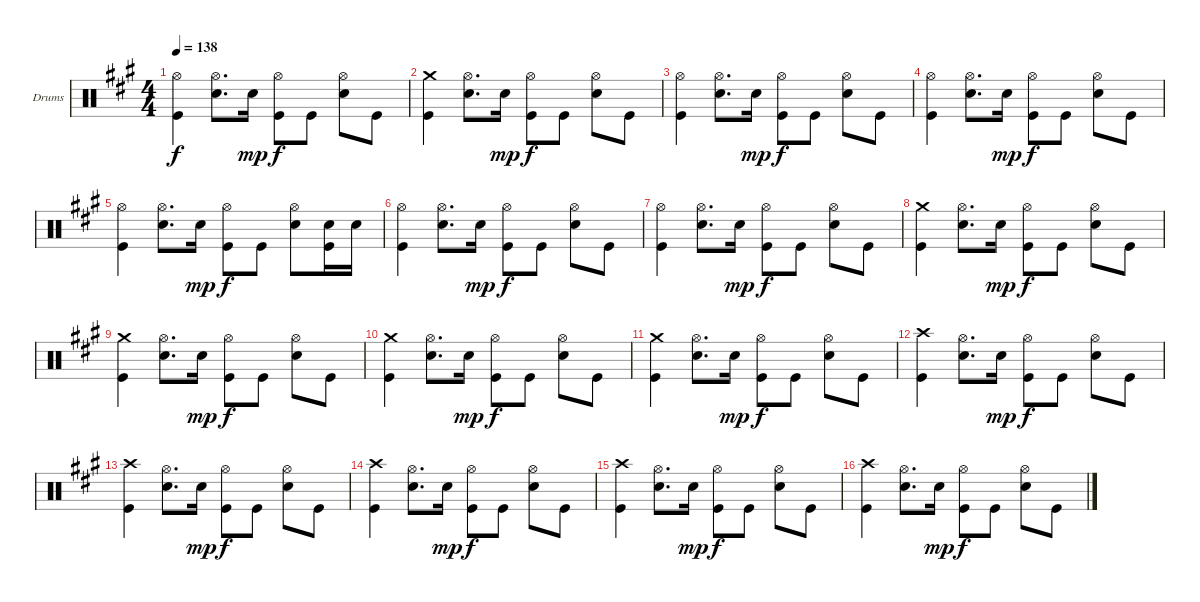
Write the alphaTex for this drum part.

\defaultSystemsLayout 4
\bracketExtendMode groupsimilarinstruments
\firstSystemTrackNameOrientation horizontal
\otherSystemsTrackNameOrientation horizontal
\track ("Drumkit" "Drums") {instrument percussion}
\staff {score}
\articulation defaults
\ts (4 4)
\tempo 138
\clef neutral
\scale
0.941992
\ks a
("Hi-Hat (open)" "Kick (hit)").4{dy f} ("Hi-Hat (open)" "Snare (hit) 2").8{d} "Snare (hit) 2".16{dy mp} ("Hi-Hat (open)" "Kick (hit)").8{dy f} "Kick (hit)".8 ("Hi-Hat (open)" "Snare (hit) 2").8 "Kick (hit)".8 |
\scale
1.05801 ("Crash medium (hit)" "Kick (hit)").4 ("Hi-Hat (open)" "Snare (hit) 2").8{d} "Snare (hit) 2".16{dy mp} ("Hi-Hat (open)" "Kick (hit)").8{dy f} "Kick (hit)".8 ("Hi-Hat (open)" "Snare (hit) 2").8 "Kick (hit)".8 |
\scale
0.941992 ("Hi-Hat (open)" "Kick (hit)").4 ("Hi-Hat (open)" "Snare (hit) 2").8{d} "Snare (hit) 2".16{dy mp} ("Hi-Hat (open)" "Kick (hit)").8{dy f} "Kick (hit)".8 ("Hi-Hat (open)" "Snare (hit) 2").8 "Kick (hit)".8 |
\scale
1.05801 ("Hi-Hat (open)" "Kick (hit)").4 ("Hi-Hat (open)" "Snare (hit) 2").8{d} "Snare (hit) 2".16{dy mp} ("Hi-Hat (open)" "Kick (hit)").8{dy f} "Kick (hit)".8 ("Hi-Hat (open)" "Snare (hit) 2").8 "Kick (hit)".8 |
\scale
0.941992 ("Hi-Hat (open)" "Kick (hit)").4 ("Hi-Hat (open)" "Snare (hit) 2").8{d} "Snare (hit) 2".16{dy mp} ("Hi-Hat (open)" "Kick (hit)").8{dy f} "Kick (hit)".8 ("Hi-Hat (open)" "Snare (hit) 2").8 ("Snare (hit) 2" "Kick (hit)").16 "Snare (hit) 2".16 |
\scale
1.05801 ("Hi-Hat (open)" "Kick (hit)").4 ("Hi-Hat (open)" "Snare (hit) 2").8{d} "Snare (hit) 2".16{dy mp} ("Hi-Hat (open)" "Kick (hit)").8{dy f} "Kick (hit)".8 ("Hi-Hat (open)" "Snare (hit) 2").8 "Kick (hit)".8 |
\scale
0.941992 ("Hi-Hat (open)" "Kick (hit)").4 ("Hi-Hat (open)" "Snare (hit) 2").8{d} "Snare (hit) 2".16{dy mp} ("Hi-Hat (open)" "Kick (hit)").8{dy f} "Kick (hit)".8 ("Hi-Hat (open)" "Snare (hit) 2").8 "Kick (hit)".8 |
\scale
1.05801 ("Crash medium (hit)" "Kick (hit)").4 ("Hi-Hat (open)" "Snare (hit) 2").8{d} "Snare (hit) 2".16{dy mp} ("Hi-Hat (open)" "Kick (hit)").8{dy f} "Kick (hit)".8 ("Hi-Hat (open)" "Snare (hit) 2").8 "Kick (hit)".8 |
\scale
0.941992 ("Crash medium (hit)" "Kick (hit)").4 ("Hi-Hat (open)" "Snare (hit) 2").8{d} "Snare (hit) 2".16{dy mp} ("Hi-Hat (open)" "Kick (hit)").8{dy f} "Kick (hit)".8 ("Hi-Hat (open)" "Snare (hit) 2").8 "Kick (hit)".8 |
\scale
1.05801 ("Crash medium (hit)" "Kick (hit)").4 ("Hi-Hat (open)" "Snare (hit) 2").8{d} "Snare (hit) 2".16{dy mp} ("Hi-Hat (open)" "Kick (hit)").8{dy f} "Kick (hit)".8 ("Hi-Hat (open)" "Snare (hit) 2").8 "Kick (hit)".8 |
\scale
0.941992 ("Crash medium (hit)" "Kick (hit)").4 ("Hi-Hat (open)" "Snare (hit) 2").8{d} "Snare (hit) 2".16{dy mp} ("Hi-Hat (open)" "Kick (hit)").8{dy f} "Kick (hit)".8 ("Hi-Hat (open)" "Snare (hit) 2").8 "Kick (hit)".8 |
\scale
1.05801 ("Crash high (hit)" "Kick (hit)").4 ("Hi-Hat (open)" "Snare (hit) 2").8{d} "Snare (hit) 2".16{dy mp} ("Hi-Hat (open)" "Kick (hit)").8{dy f} "Kick (hit)".8 ("Hi-Hat (open)" "Snare (hit) 2").8 "Kick (hit)".8 |
\scale
0.941992 ("Crash high (hit)" "Kick (hit)").4 ("Hi-Hat (open)" "Snare (hit) 2").8{d} "Snare (hit) 2".16{dy mp} ("Hi-Hat (open)" "Kick (hit)").8{dy f} "Kick (hit)".8 ("Hi-Hat (open)" "Snare (hit) 2").8 "Kick (hit)".8 |
\scale
1.05801 ("Crash high (hit)" "Kick (hit)").4 ("Hi-Hat (open)" "Snare (hit) 2").8{d} "Snare (hit) 2".16{dy mp} ("Hi-Hat (open)" "Kick (hit)").8{dy f} "Kick (hit)".8 ("Hi-Hat (open)" "Snare (hit) 2").8 "Kick (hit)".8 |
\scale
0.941992 ("Crash high (hit)" "Kick (hit)").4 ("Hi-Hat (open)" "Snare (hit) 2").8{d} "Snare (hit) 2".16{dy mp} ("Hi-Hat (open)" "Kick (hit)").8{dy f} "Kick (hit)".8 ("Hi-Hat (open)" "Snare (hit) 2").8 "Kick (hit)".8 |
\scale
1.05801 ("Crash high (hit)" "Kick (hit)").4 ("Hi-Hat (open)" "Snare (hit) 2").8{d} "Snare (hit) 2".16{dy mp} ("Hi-Hat (open)" "Kick (hit)").8{dy f} "Kick (hit)".8 ("Hi-Hat (open)" "Snare (hit) 2").8 "Kick (hit)".8
